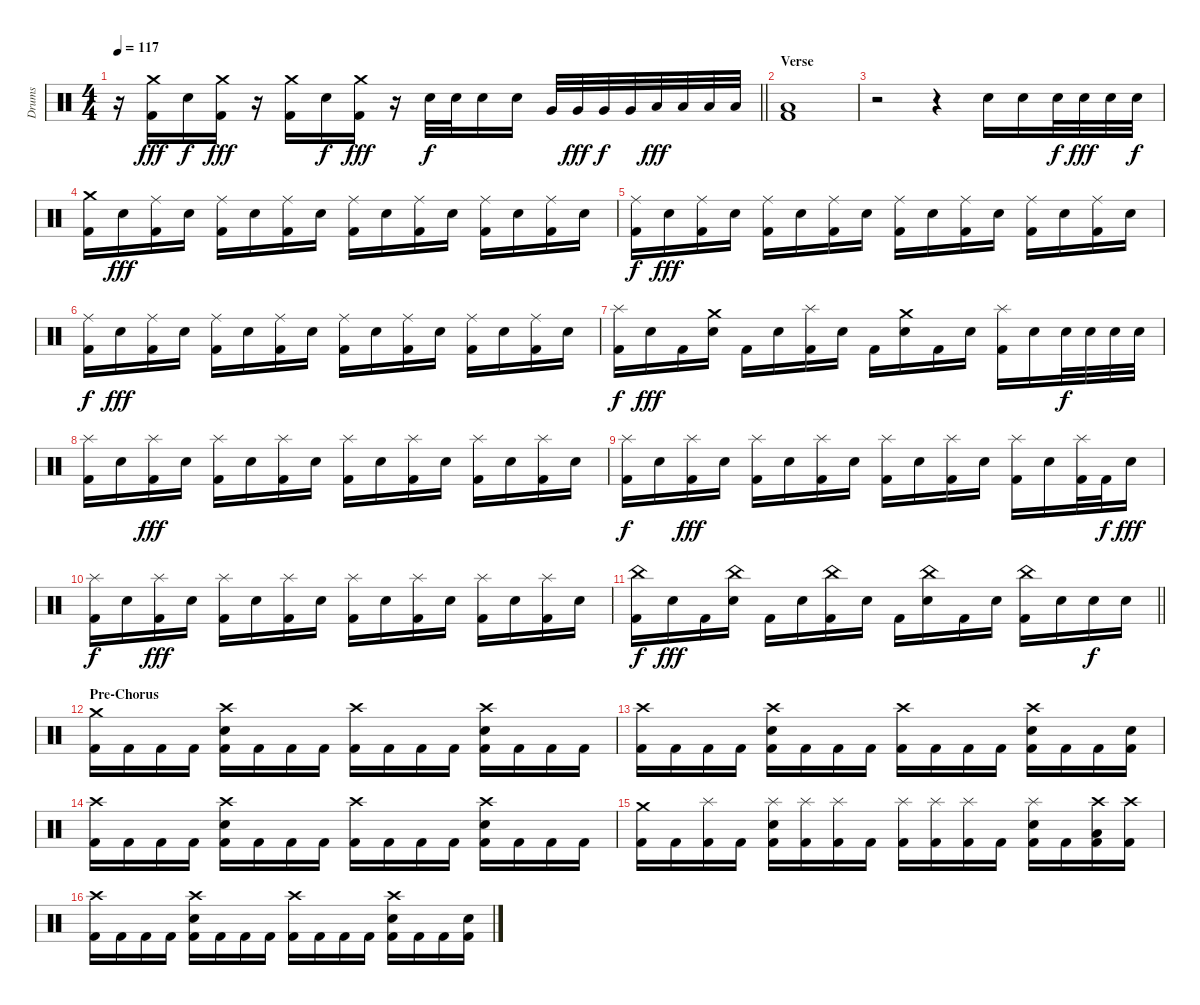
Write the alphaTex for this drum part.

\track ("Drums" "Drums") {instrument percussion}
\staff {score}
\articulation defaults
\ts (4 4)
\tempo 117
\clef neutral
\barLineRight lightlight
\ks c
r.16{dy fff} ("Crash medium (hit)" "Kick (hit) 2").16 "Electric Snare (hit)".16{dy f} ("Crash medium (hit)" "Kick (hit) 2").16{dy fff} r.16 ("Crash medium (hit)" "Kick (hit) 2").16 "Electric Snare (hit)".16{dy f} ("Crash medium (hit)" "Kick (hit) 2").16{dy fff} r.16 "Electric Snare (hit)".32{dy f} "Electric Snare (hit)".32 "Electric Snare (hit)".16 "Electric Snare (hit)".16 "Very Low Tom (hit)".32 "Very Low Tom (hit)".32{dy fff} "Very Low Tom (hit)".32{dy f} "Very Low Tom (hit)".32 "Low Floor Tom (hit)".32{dy fff} "Low Floor Tom (hit)".32 "Low Floor Tom (hit)".32 "Low Floor Tom (hit)".32 |
\section ("" "Verse")
("Low Floor Tom (hit)" "Kick (hit) 2").1 |
r.2 r.4 "Electric Snare (hit)".16 "Electric Snare (hit)".16 "Electric Snare (hit)".32{dy f} "Electric Snare (hit)".32{dy fff} "Electric Snare (hit)".32 "Electric Snare (hit)".32{dy f} |
("Crash medium (hit)" "Kick (hit) 2").16 "Electric Snare (hit)".16{dy fff} ("Ride (middle)" "Kick (hit) 2").16 "Electric Snare (hit)".16 ("Ride (middle)" "Kick (hit) 2").16 "Electric Snare (hit)".16 ("Ride (middle)" "Kick (hit) 2").16 "Electric Snare (hit)".16 ("Ride (middle)" "Kick (hit) 2").16 "Electric Snare (hit)".16 ("Ride (middle)" "Kick (hit) 2").16 "Electric Snare (hit)".16 ("Ride (middle)" "Kick (hit) 2").16 "Electric Snare (hit)".16 ("Ride (middle)" "Kick (hit) 2").16 "Electric Snare (hit)".16 |
("Ride (middle)" "Kick (hit) 2").16{dy f} "Electric Snare (hit)".16{dy fff} ("Ride (middle)" "Kick (hit) 2").16 "Electric Snare (hit)".16 ("Ride (middle)" "Kick (hit) 2").16 "Electric Snare (hit)".16 ("Ride (middle)" "Kick (hit) 2").16 "Electric Snare (hit)".16 ("Ride (middle)" "Kick (hit) 2").16 "Electric Snare (hit)".16 ("Ride (middle)" "Kick (hit) 2").16 "Electric Snare (hit)".16 ("Ride (middle)" "Kick (hit) 2").16 "Electric Snare (hit)".16 ("Ride (middle)" "Kick (hit) 2").16 "Electric Snare (hit)".16 |
("Ride (middle)" "Kick (hit) 2").16{dy f} "Electric Snare (hit)".16{dy fff} ("Ride (middle)" "Kick (hit) 2").16 "Electric Snare (hit)".16 ("Ride (middle)" "Kick (hit) 2").16 "Electric Snare (hit)".16 ("Ride (middle)" "Kick (hit) 2").16 "Electric Snare (hit)".16 ("Ride (middle)" "Kick (hit) 2").16 "Electric Snare (hit)".16 ("Ride (middle)" "Kick (hit) 2").16 "Electric Snare (hit)".16 ("Ride (middle)" "Kick (hit) 2").16 "Electric Snare (hit)".16 ("Ride (middle)" "Kick (hit) 2").16 "Electric Snare (hit)".16 |
("Splash (hit)" "Kick (hit) 2").16{dy f} "Electric Snare (hit)".16{dy fff} "Kick (hit) 2".16 ("Crash medium (hit)" "Electric Snare (hit)").16 "Kick (hit) 2".16 "Electric Snare (hit)".16 ("Splash (hit)" "Kick (hit) 2").16 "Electric Snare (hit)".16 "Kick (hit) 2".16 ("Crash medium (hit)" "Electric Snare (hit)").16 "Kick (hit) 2".16 "Electric Snare (hit)".16 ("Splash (hit)" "Kick (hit) 2").16 "Electric Snare (hit)".16 "Electric Snare (hit)".32{dy f} "Electric Snare (hit)".32 "Electric Snare (hit)".32 "Electric Snare (hit)".32 |
("Splash (hit)" "Kick (hit) 2").16 "Electric Snare (hit)".16 ("Splash (hit)" "Kick (hit) 2").16{dy fff} "Electric Snare (hit)".16 ("Splash (hit)" "Kick (hit) 2").16 "Electric Snare (hit)".16 ("Splash (hit)" "Kick (hit) 2").16 "Electric Snare (hit)".16 ("Splash (hit)" "Kick (hit) 2").16 "Electric Snare (hit)".16 ("Splash (hit)" "Kick (hit) 2").16 "Electric Snare (hit)".16 ("Splash (hit)" "Kick (hit) 2").16 "Electric Snare (hit)".16 ("Splash (hit)" "Kick (hit) 2").16 "Electric Snare (hit)".16 |
("Splash (hit)" "Kick (hit) 2").16{dy f} "Electric Snare (hit)".16 ("Splash (hit)" "Kick (hit) 2").16{dy fff} "Electric Snare (hit)".16 ("Splash (hit)" "Kick (hit) 2").16 "Electric Snare (hit)".16 ("Splash (hit)" "Kick (hit) 2").16 "Electric Snare (hit)".16 ("Splash (hit)" "Kick (hit) 2").16 "Electric Snare (hit)".16 ("Splash (hit)" "Kick (hit) 2").16 "Electric Snare (hit)".16 ("Splash (hit)" "Kick (hit) 2").16 "Electric Snare (hit)".16 ("Splash (hit)" "Kick (hit) 2").32 "Kick (hit) 2".32{dy f} "Electric Snare (hit)".16{dy fff} |
("Splash (hit)" "Kick (hit) 2").16{dy f} "Electric Snare (hit)".16 ("Splash (hit)" "Kick (hit) 2").16{dy fff} "Electric Snare (hit)".16 ("Splash (hit)" "Kick (hit) 2").16 "Electric Snare (hit)".16 ("Splash (hit)" "Kick (hit) 2").16 "Electric Snare (hit)".16 ("Splash (hit)" "Kick (hit) 2").16 "Electric Snare (hit)".16 ("Splash (hit)" "Kick (hit) 2").16 "Electric Snare (hit)".16 ("Splash (hit)" "Kick (hit) 2").16 "Electric Snare (hit)".16 ("Splash (hit)" "Kick (hit) 2").16 "Electric Snare (hit)".16 |
\barLineRight lightlight
("China (hit)" "Kick (hit) 2").16{dy f} "Electric Snare (hit)".16{dy fff} "Kick (hit) 2".16 ("China (hit)" "Electric Snare (hit)").16 "Kick (hit) 2".16 "Electric Snare (hit)".16 ("China (hit)" "Kick (hit) 2").16 "Electric Snare (hit)".16 "Kick (hit) 2".16 ("China (hit)" "Electric Snare (hit)").16 "Kick (hit) 2".16 "Electric Snare (hit)".16 ("China (hit)" "Kick (hit) 2").16 "Electric Snare (hit)".16 "Electric Snare (hit)".16{dy f} "Electric Snare (hit)".16 |
\section ("" "Pre-Chorus")
("Crash medium (hit)" "Kick (hit) 2").16 "Kick (hit) 2".16 "Kick (hit) 2".16 "Kick (hit) 2".16 ("Crash high (hit)" "Electric Snare (hit)" "Kick (hit) 2").16 "Kick (hit) 2".16 "Kick (hit) 2".16 "Kick (hit) 2".16 ("Crash high (hit)" "Kick (hit) 2").16 "Kick (hit) 2".16 "Kick (hit) 2".16 "Kick (hit) 2".16 ("Crash high (hit)" "Electric Snare (hit)" "Kick (hit) 2").16 "Kick (hit) 2".16 "Kick (hit) 2".16 "Kick (hit) 2".16 |
("Crash high (hit)" "Kick (hit) 2").16 "Kick (hit) 2".16 "Kick (hit) 2".16 "Kick (hit) 2".16 ("Crash high (hit)" "Electric Snare (hit)" "Kick (hit) 2").16 "Kick (hit) 2".16 "Kick (hit) 2".16 "Kick (hit) 2".16 ("Crash high (hit)" "Kick (hit) 2").16 "Kick (hit) 2".16 "Kick (hit) 2".16 "Kick (hit) 2".16 ("Crash high (hit)" "Electric Snare (hit)" "Kick (hit) 2").16 "Kick (hit) 2".16 "Kick (hit) 2".16 ("Electric Snare (hit)" "Kick (hit) 2").16 |
("Crash high (hit)" "Kick (hit) 2").16 "Kick (hit) 2".16 "Kick (hit) 2".16 "Kick (hit) 2".16 ("Crash high (hit)" "Electric Snare (hit)" "Kick (hit) 2").16 "Kick (hit) 2".16 "Kick (hit) 2".16 "Kick (hit) 2".16 ("Crash high (hit)" "Kick (hit) 2").16 "Kick (hit) 2".16 "Kick (hit) 2".16 "Kick (hit) 2".16 ("Crash high (hit)" "Electric Snare (hit)" "Kick (hit) 2").16 "Kick (hit) 2".16 "Kick (hit) 2".16 "Kick (hit) 2".16 |
("Crash medium (hit)" "Kick (hit) 2").16 "Kick (hit) 2".16 ("Splash (hit)" "Kick (hit) 2").16 "Kick (hit) 2".16 ("Splash (hit)" "Electric Snare (hit)" "Kick (hit) 2").16 ("Splash (hit)" "Kick (hit) 2").16 ("Splash (hit)" "Kick (hit) 2").16 "Kick (hit) 2".16 ("Splash (hit)" "Kick (hit) 2").16 ("Splash (hit)" "Kick (hit) 2").16 ("Splash (hit)" "Kick (hit) 2").16 "Kick (hit) 2".16 ("Splash (hit)" "Electric Snare (hit)" "Kick (hit) 2").16 "Kick (hit) 2".16 ("Crash high (hit)" "Low Floor Tom (hit)" "Kick (hit) 2").16 ("Crash high (hit)" "Kick (hit) 2").16 |
("Crash high (hit)" "Kick (hit) 2").16 "Kick (hit) 2".16 "Kick (hit) 2".16 "Kick (hit) 2".16 ("Crash high (hit)" "Electric Snare (hit)" "Kick (hit) 2").16 "Kick (hit) 2".16 "Kick (hit) 2".16 "Kick (hit) 2".16 ("Crash high (hit)" "Kick (hit) 2").16 "Kick (hit) 2".16 "Kick (hit) 2".16 "Kick (hit) 2".16 ("Crash high (hit)" "Electric Snare (hit)" "Kick (hit) 2").16 "Kick (hit) 2".16 "Kick (hit) 2".16 ("Electric Snare (hit)" "Kick (hit) 2").16
